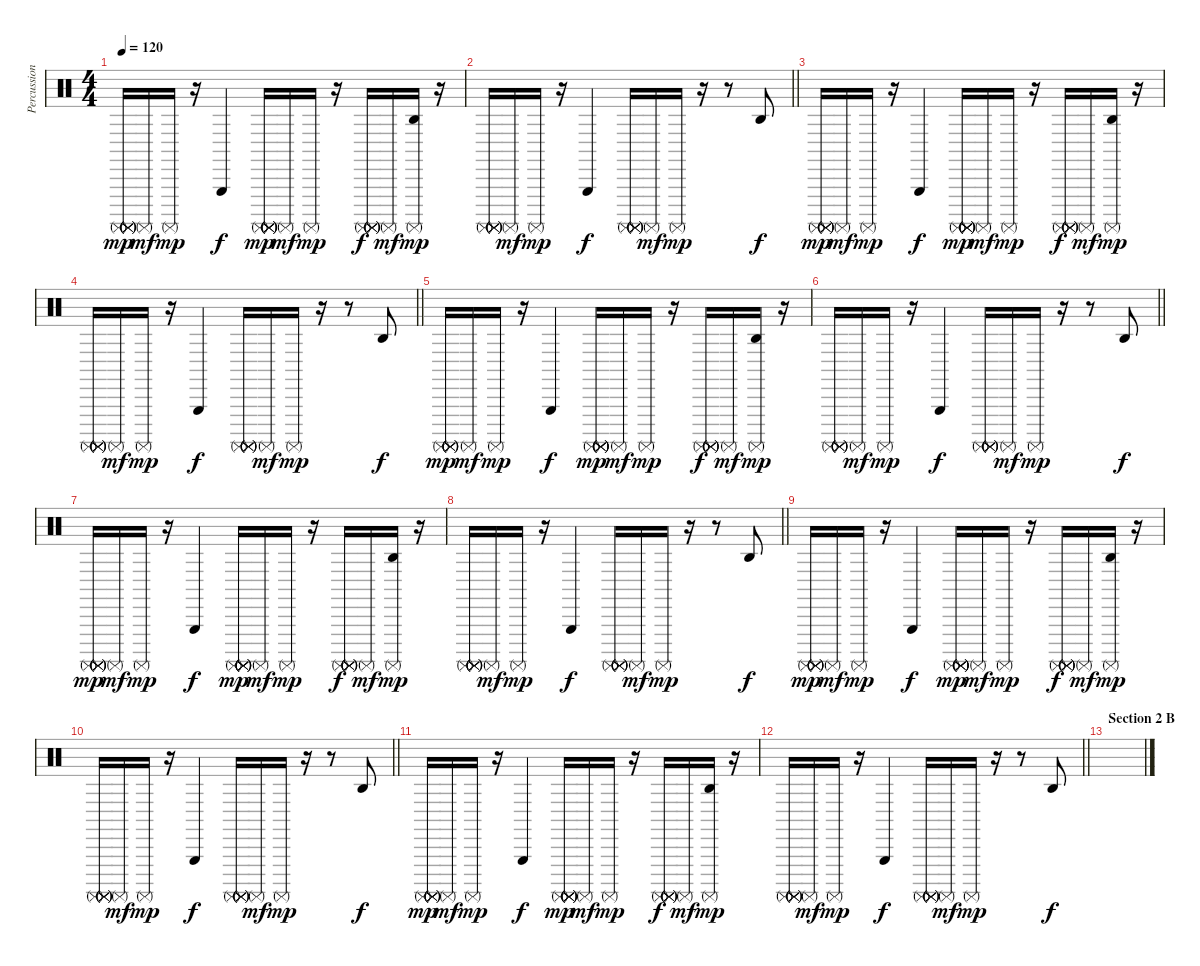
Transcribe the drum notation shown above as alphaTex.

\track ("Percussion" "Percussion") {instrument percussion}
\staff {score}
\articulation defaults
\ts (4 4)
\tempo 120
\clef neutral
\ks c
("Surdo (mute)" "Surdo (mute)" "Surdo (mute)" "Surdo (mute)" "Surdo (mute)").16{dy mp} "Surdo (mute)".16{dy mf} "Surdo (mute)".16{dy mp} r.16 "Triangle (hit)".4{dy f} ("Surdo (mute)" "Surdo (mute)" "Surdo (mute)" "Surdo (mute)" "Surdo (mute)" "Surdo (mute)").16{dy mp} "Surdo (mute)".16{dy mf} "Surdo (mute)".16{dy mp} r.16 ("Surdo (mute)" "Surdo (mute)" "Surdo (mute)" "Surdo (mute)" "Surdo (mute)").16{dy f} "Surdo (mute)".16{dy mf} ("Agogo high (hit)" "Surdo (mute)").16{dy mp} r.16 |
\barLineRight lightlight
("Surdo (mute)" "Surdo (mute)" "Surdo (mute)" "Surdo (mute)" "Surdo (mute)").16 "Surdo (mute)".16{dy mf} "Surdo (mute)".16{dy mp} r.16 "Triangle (hit)".4{dy f} ("Surdo (mute)" "Surdo (mute)" "Surdo (mute)" "Surdo (mute)" "Surdo (mute)").16 "Surdo (mute)".16{dy mf} "Surdo (mute)".16{dy mp} r.16 r.8 "Agogo high (hit)".8{dy f} |
("Surdo (mute)" "Surdo (mute)" "Surdo (mute)" "Surdo (mute)" "Surdo (mute)").16{dy mp} "Surdo (mute)".16{dy mf} "Surdo (mute)".16{dy mp} r.16 "Triangle (hit)".4{dy f} ("Surdo (mute)" "Surdo (mute)" "Surdo (mute)" "Surdo (mute)" "Surdo (mute)" "Surdo (mute)").16{dy mp} "Surdo (mute)".16{dy mf} "Surdo (mute)".16{dy mp} r.16 ("Surdo (mute)" "Surdo (mute)" "Surdo (mute)" "Surdo (mute)" "Surdo (mute)").16{dy f} "Surdo (mute)".16{dy mf} ("Agogo high (hit)" "Surdo (mute)").16{dy mp} r.16 |
\barLineRight lightlight
("Surdo (mute)" "Surdo (mute)" "Surdo (mute)" "Surdo (mute)" "Surdo (mute)").16 "Surdo (mute)".16{dy mf} "Surdo (mute)".16{dy mp} r.16 "Triangle (hit)".4{dy f} ("Surdo (mute)" "Surdo (mute)" "Surdo (mute)" "Surdo (mute)" "Surdo (mute)").16 "Surdo (mute)".16{dy mf} "Surdo (mute)".16{dy mp} r.16 r.8 "Agogo high (hit)".8{dy f} |
("Surdo (mute)" "Surdo (mute)" "Surdo (mute)" "Surdo (mute)" "Surdo (mute)").16{dy mp} "Surdo (mute)".16{dy mf} "Surdo (mute)".16{dy mp} r.16 "Triangle (hit)".4{dy f} ("Surdo (mute)" "Surdo (mute)" "Surdo (mute)" "Surdo (mute)" "Surdo (mute)" "Surdo (mute)").16{dy mp} "Surdo (mute)".16{dy mf} "Surdo (mute)".16{dy mp} r.16 ("Surdo (mute)" "Surdo (mute)" "Surdo (mute)" "Surdo (mute)" "Surdo (mute)").16{dy f} "Surdo (mute)".16{dy mf} ("Agogo high (hit)" "Surdo (mute)").16{dy mp} r.16 |
\barLineRight lightlight
("Surdo (mute)" "Surdo (mute)" "Surdo (mute)" "Surdo (mute)" "Surdo (mute)").16 "Surdo (mute)".16{dy mf} "Surdo (mute)".16{dy mp} r.16 "Triangle (hit)".4{dy f} ("Surdo (mute)" "Surdo (mute)" "Surdo (mute)" "Surdo (mute)" "Surdo (mute)").16 "Surdo (mute)".16{dy mf} "Surdo (mute)".16{dy mp} r.16 r.8 "Agogo high (hit)".8{dy f} |
("Surdo (mute)" "Surdo (mute)" "Surdo (mute)" "Surdo (mute)" "Surdo (mute)").16{dy mp} "Surdo (mute)".16{dy mf} "Surdo (mute)".16{dy mp} r.16 "Triangle (hit)".4{dy f} ("Surdo (mute)" "Surdo (mute)" "Surdo (mute)" "Surdo (mute)" "Surdo (mute)" "Surdo (mute)").16{dy mp} "Surdo (mute)".16{dy mf} "Surdo (mute)".16{dy mp} r.16 ("Surdo (mute)" "Surdo (mute)" "Surdo (mute)" "Surdo (mute)" "Surdo (mute)").16{dy f} "Surdo (mute)".16{dy mf} ("Agogo high (hit)" "Surdo (mute)").16{dy mp} r.16 |
\barLineRight lightlight
("Surdo (mute)" "Surdo (mute)" "Surdo (mute)" "Surdo (mute)" "Surdo (mute)").16 "Surdo (mute)".16{dy mf} "Surdo (mute)".16{dy mp} r.16 "Triangle (hit)".4{dy f} ("Surdo (mute)" "Surdo (mute)" "Surdo (mute)" "Surdo (mute)" "Surdo (mute)").16 "Surdo (mute)".16{dy mf} "Surdo (mute)".16{dy mp} r.16 r.8 "Agogo high (hit)".8{dy f} |
("Surdo (mute)" "Surdo (mute)" "Surdo (mute)" "Surdo (mute)" "Surdo (mute)").16{dy mp} "Surdo (mute)".16{dy mf} "Surdo (mute)".16{dy mp} r.16 "Triangle (hit)".4{dy f} ("Surdo (mute)" "Surdo (mute)" "Surdo (mute)" "Surdo (mute)" "Surdo (mute)" "Surdo (mute)").16{dy mp} "Surdo (mute)".16{dy mf} "Surdo (mute)".16{dy mp} r.16 ("Surdo (mute)" "Surdo (mute)" "Surdo (mute)" "Surdo (mute)" "Surdo (mute)").16{dy f} "Surdo (mute)".16{dy mf} ("Agogo high (hit)" "Surdo (mute)").16{dy mp} r.16 |
\barLineRight lightlight
("Surdo (mute)" "Surdo (mute)" "Surdo (mute)" "Surdo (mute)" "Surdo (mute)").16 "Surdo (mute)".16{dy mf} "Surdo (mute)".16{dy mp} r.16 "Triangle (hit)".4{dy f} ("Surdo (mute)" "Surdo (mute)" "Surdo (mute)" "Surdo (mute)" "Surdo (mute)").16 "Surdo (mute)".16{dy mf} "Surdo (mute)".16{dy mp} r.16 r.8 "Agogo high (hit)".8{dy f} |
("Surdo (mute)" "Surdo (mute)" "Surdo (mute)" "Surdo (mute)" "Surdo (mute)").16{dy mp} "Surdo (mute)".16{dy mf} "Surdo (mute)".16{dy mp} r.16 "Triangle (hit)".4{dy f} ("Surdo (mute)" "Surdo (mute)" "Surdo (mute)" "Surdo (mute)" "Surdo (mute)" "Surdo (mute)").16{dy mp} "Surdo (mute)".16{dy mf} "Surdo (mute)".16{dy mp} r.16 ("Surdo (mute)" "Surdo (mute)" "Surdo (mute)" "Surdo (mute)" "Surdo (mute)").16{dy f} "Surdo (mute)".16{dy mf} ("Agogo high (hit)" "Surdo (mute)").16{dy mp} r.16 |
\barLineRight lightlight
("Surdo (mute)" "Surdo (mute)" "Surdo (mute)" "Surdo (mute)" "Surdo (mute)").16 "Surdo (mute)".16{dy mf} "Surdo (mute)".16{dy mp} r.16 "Triangle (hit)".4{dy f} ("Surdo (mute)" "Surdo (mute)" "Surdo (mute)" "Surdo (mute)" "Surdo (mute)").16 "Surdo (mute)".16{dy mf} "Surdo (mute)".16{dy mp} r.16 r.8 "Agogo high (hit)".8{dy f} |
\section ("" "Section 2 B")
